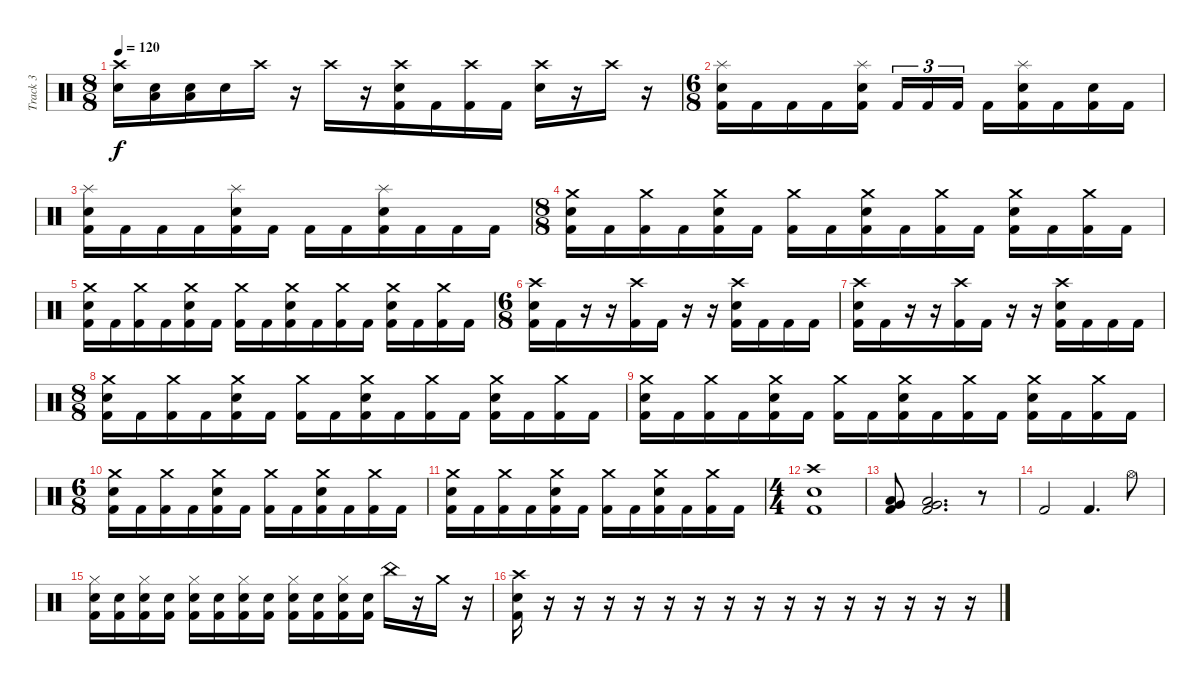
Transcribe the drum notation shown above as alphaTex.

\track ("Track 3" "Track 3") {instrument percussion}
\staff {score}
\articulation defaults
\ts (8 8)
\tempo 120
\clef neutral
\ks c
("Crash high (hit)" "Electric Snare (hit)").16{dy f} ("Low Tom (hit)" "Electric Snare (hit)").16 ("Low Tom (hit)" "Electric Snare (hit)").16 "Electric Snare (hit)".16 "Crash high (hit)".16 r.16 "Crash high (hit)".16 r.16 ("Crash high (hit)" "Kick (hit) 2" "Electric Snare (hit)").16 "Kick (hit) 2".16 ("Crash high (hit)" "Kick (hit) 2").16 "Kick (hit) 2".16 ("Crash high (hit)" "Electric Snare (hit)").16 r.16 "Crash high (hit)".16 r.16 |
\ts (6 8)
("Splash (hit)" "Kick (hit) 2" "Electric Snare (hit)").16 "Kick (hit) 2".16 "Kick (hit) 2".16 "Kick (hit) 2".16 ("Splash (hit)" "Kick (hit) 2" "Electric Snare (hit)").16 "Kick (hit) 2".16{tu (3 2)} "Kick (hit) 2".16{tu (3 2)} "Kick (hit) 2".16{tu (3 2)} "Kick (hit) 2".16 ("Splash (hit)" "Kick (hit) 2" "Electric Snare (hit)").16 "Kick (hit) 2".16 ("Kick (hit) 2" "Electric Snare (hit)").16 "Kick (hit) 2".16 |
("Kick (hit) 2" "Splash (hit)" "Electric Snare (hit)").16 "Kick (hit) 2".16 "Kick (hit) 2".16 "Kick (hit) 2".16 ("Kick (hit) 2" "Splash (hit)" "Electric Snare (hit)").16 "Kick (hit) 2".16 "Kick (hit) 2".16 "Kick (hit) 2".16 ("Kick (hit) 2" "Splash (hit)" "Electric Snare (hit)").16 "Kick (hit) 2".16 "Kick (hit) 2".16 "Kick (hit) 2".16 |
\ts (8 8)
("Crash medium (hit)" "Kick (hit) 2" "Electric Snare (hit)").16 "Kick (hit) 2".16 ("Crash medium (hit)" "Kick (hit) 2").16 "Kick (hit) 2".16 ("Crash medium (hit)" "Kick (hit) 2" "Electric Snare (hit)").16 "Kick (hit) 2".16 ("Crash medium (hit)" "Kick (hit) 2").16 "Kick (hit) 2".16 ("Crash medium (hit)" "Kick (hit) 2" "Electric Snare (hit)").16 "Kick (hit) 2".16 ("Crash medium (hit)" "Kick (hit) 2").16 "Kick (hit) 2".16 ("Crash medium (hit)" "Kick (hit) 2" "Electric Snare (hit)").16 "Kick (hit) 2".16 ("Crash medium (hit)" "Kick (hit) 2").16 "Kick (hit) 2".16 |
("Crash medium (hit)" "Kick (hit) 2" "Electric Snare (hit)").16 "Kick (hit) 2".16 ("Crash medium (hit)" "Kick (hit) 2").16 "Kick (hit) 2".16 ("Crash medium (hit)" "Kick (hit) 2" "Electric Snare (hit)").16 "Kick (hit) 2".16 ("Crash medium (hit)" "Kick (hit) 2").16 "Kick (hit) 2".16 ("Crash medium (hit)" "Kick (hit) 2" "Electric Snare (hit)").16 "Kick (hit) 2".16 ("Crash medium (hit)" "Kick (hit) 2").16 "Kick (hit) 2".16 ("Crash medium (hit)" "Kick (hit) 2" "Electric Snare (hit)").16 "Kick (hit) 2".16 ("Crash medium (hit)" "Kick (hit) 2").16 "Kick (hit) 2".16 |
\ts (6 8)
("Crash high (hit)" "Kick (hit) 2" "Electric Snare (hit)").16 "Kick (hit) 2".16 r.16 r.16 ("Crash high (hit)" "Kick (hit) 2").16 "Kick (hit) 2".16 r.16 r.16 ("Crash high (hit)" "Kick (hit) 2" "Electric Snare (hit)").16 "Kick (hit) 2".16 "Kick (hit) 2".16 "Kick (hit) 2".16 |
("Crash high (hit)" "Kick (hit) 2" "Electric Snare (hit)").16 "Kick (hit) 2".16 r.16 r.16 ("Crash high (hit)" "Kick (hit) 2").16 "Kick (hit) 2".16 r.16 r.16 ("Crash high (hit)" "Kick (hit) 2" "Electric Snare (hit)").16 "Kick (hit) 2".16 "Kick (hit) 2".16 "Kick (hit) 2".16 |
\ts (8 8)
("Crash medium (hit)" "Kick (hit) 2" "Electric Snare (hit)").16 "Kick (hit) 2".16 ("Crash medium (hit)" "Kick (hit) 2").16 "Kick (hit) 2".16 ("Crash medium (hit)" "Kick (hit) 2" "Electric Snare (hit)").16 "Kick (hit) 2".16 ("Crash medium (hit)" "Kick (hit) 2").16 "Kick (hit) 2".16 ("Crash medium (hit)" "Kick (hit) 2" "Electric Snare (hit)").16 "Kick (hit) 2".16 ("Crash medium (hit)" "Kick (hit) 2").16 "Kick (hit) 2".16 ("Crash medium (hit)" "Kick (hit) 2" "Electric Snare (hit)").16 "Kick (hit) 2".16 ("Crash medium (hit)" "Kick (hit) 2").16 "Kick (hit) 2".16 |
("Crash medium (hit)" "Kick (hit) 2" "Electric Snare (hit)").16 "Kick (hit) 2".16 ("Crash medium (hit)" "Kick (hit) 2").16 "Kick (hit) 2".16 ("Crash medium (hit)" "Kick (hit) 2" "Electric Snare (hit)").16 "Kick (hit) 2".16 ("Crash medium (hit)" "Kick (hit) 2").16 "Kick (hit) 2".16 ("Crash medium (hit)" "Kick (hit) 2" "Electric Snare (hit)").16 "Kick (hit) 2".16 ("Crash medium (hit)" "Kick (hit) 2").16 "Kick (hit) 2".16 ("Crash medium (hit)" "Kick (hit) 2" "Electric Snare (hit)").16 "Kick (hit) 2".16 ("Crash medium (hit)" "Kick (hit) 2").16 "Kick (hit) 2".16 |
\ts (6 8)
("Crash medium (hit)" "Kick (hit) 2" "Electric Snare (hit)").16 "Kick (hit) 2".16 ("Crash medium (hit)" "Kick (hit) 2").16 "Kick (hit) 2".16 ("Crash medium (hit)" "Kick (hit) 2" "Electric Snare (hit)").16 "Kick (hit) 2".16 ("Crash medium (hit)" "Kick (hit) 2").16 "Kick (hit) 2".16 ("Crash medium (hit)" "Kick (hit) 2" "Electric Snare (hit)").16 "Kick (hit) 2".16 ("Crash medium (hit)" "Kick (hit) 2").16 "Kick (hit) 2".16 |
("Crash medium (hit)" "Kick (hit) 2" "Electric Snare (hit)").16 "Kick (hit) 2".16 ("Crash medium (hit)" "Kick (hit) 2").16 "Kick (hit) 2".16 ("Crash medium (hit)" "Kick (hit) 2" "Electric Snare (hit)").16 "Kick (hit) 2".16 ("Crash medium (hit)" "Kick (hit) 2").16 "Kick (hit) 2".16 ("Crash medium (hit)" "Kick (hit) 2" "Electric Snare (hit)").16 "Kick (hit) 2".16 ("Crash medium (hit)" "Kick (hit) 2").16 "Kick (hit) 2".16 |
\ts (4 4)
("Crash high (hit)" "Kick (hit) 2" "Electric Snare (hit)").1 |
("Low Floor Tom (hit)" "Kick (hit) 2" "Very Low Tom (hit)").8 ("Low Floor Tom (hit)" "Kick (hit) 2" "Very Low Tom (hit)").2{d} r.8 |
"Kick (hit) 2".2 "Kick (hit) 2".4{d} "Hi-Hat (open)".8 |
("Hi-Hat (closed)" "Kick (hit) 2" "Electric Snare (hit)").16 ("Kick (hit) 2" "Electric Snare (hit)").16 ("Hi-Hat (closed)" "Kick (hit) 2" "Electric Snare (hit)").16 ("Kick (hit) 2" "Electric Snare (hit)").16 ("Hi-Hat (closed)" "Kick (hit) 2" "Electric Snare (hit)").16 ("Kick (hit) 2" "Electric Snare (hit)").16 ("Hi-Hat (closed)" "Kick (hit) 2" "Electric Snare (hit)").16 ("Kick (hit) 2" "Electric Snare (hit)").16 ("Hi-Hat (closed)" "Kick (hit) 2" "Electric Snare (hit)").16 ("Kick (hit) 2" "Electric Snare (hit)").16 ("Hi-Hat (closed)" "Kick (hit) 2" "Electric Snare (hit)").16 ("Kick (hit) 2" "Electric Snare (hit)").16 "China (hit)".16 r.16 "Crash medium (hit)".16 r.16 |
("Crash high (hit)" "Electric Snare (hit)" "Kick (hit) 2").16 r.16 r.16 r.16 r.16 r.16 r.16 r.16 r.16 r.16 r.16 r.16 r.16 r.16 r.16 r.16
